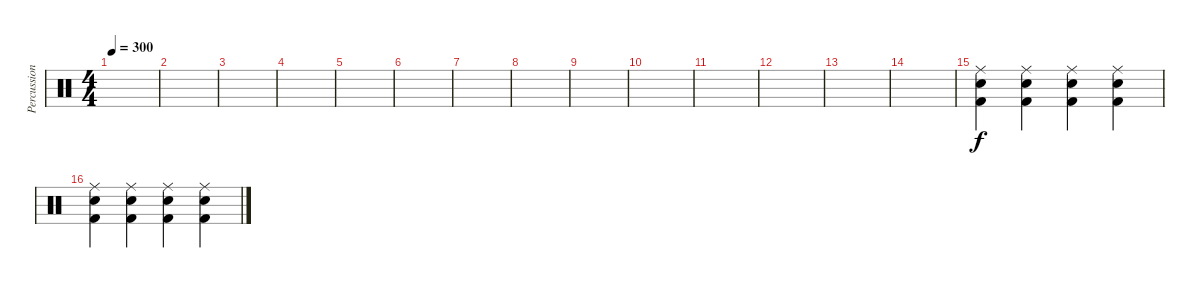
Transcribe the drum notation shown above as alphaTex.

\track ("Percussion" "Percussion") {instrument percussion}
\staff {score}
\articulation defaults
\ts (4 4)
\tempo 300
\clef neutral
\ks c
|
|
|
|
|
|
|
|
|
|
|
|
|
|
("Ride (middle)" "Snare (hit) 2" "Kick (hit) 2").4 ("Ride (middle)" "Snare (hit) 2" "Kick (hit) 2").4 ("Ride (middle)" "Snare (hit) 2" "Kick (hit) 2").4 ("Ride (middle)" "Snare (hit) 2" "Kick (hit) 2").4 |
("Ride (middle)" "Snare (hit) 2" "Kick (hit) 2").4 ("Ride (middle)" "Snare (hit) 2" "Kick (hit) 2").4 ("Ride (middle)" "Snare (hit) 2" "Kick (hit) 2").4 ("Ride (middle)" "Snare (hit) 2" "Kick (hit) 2").4
